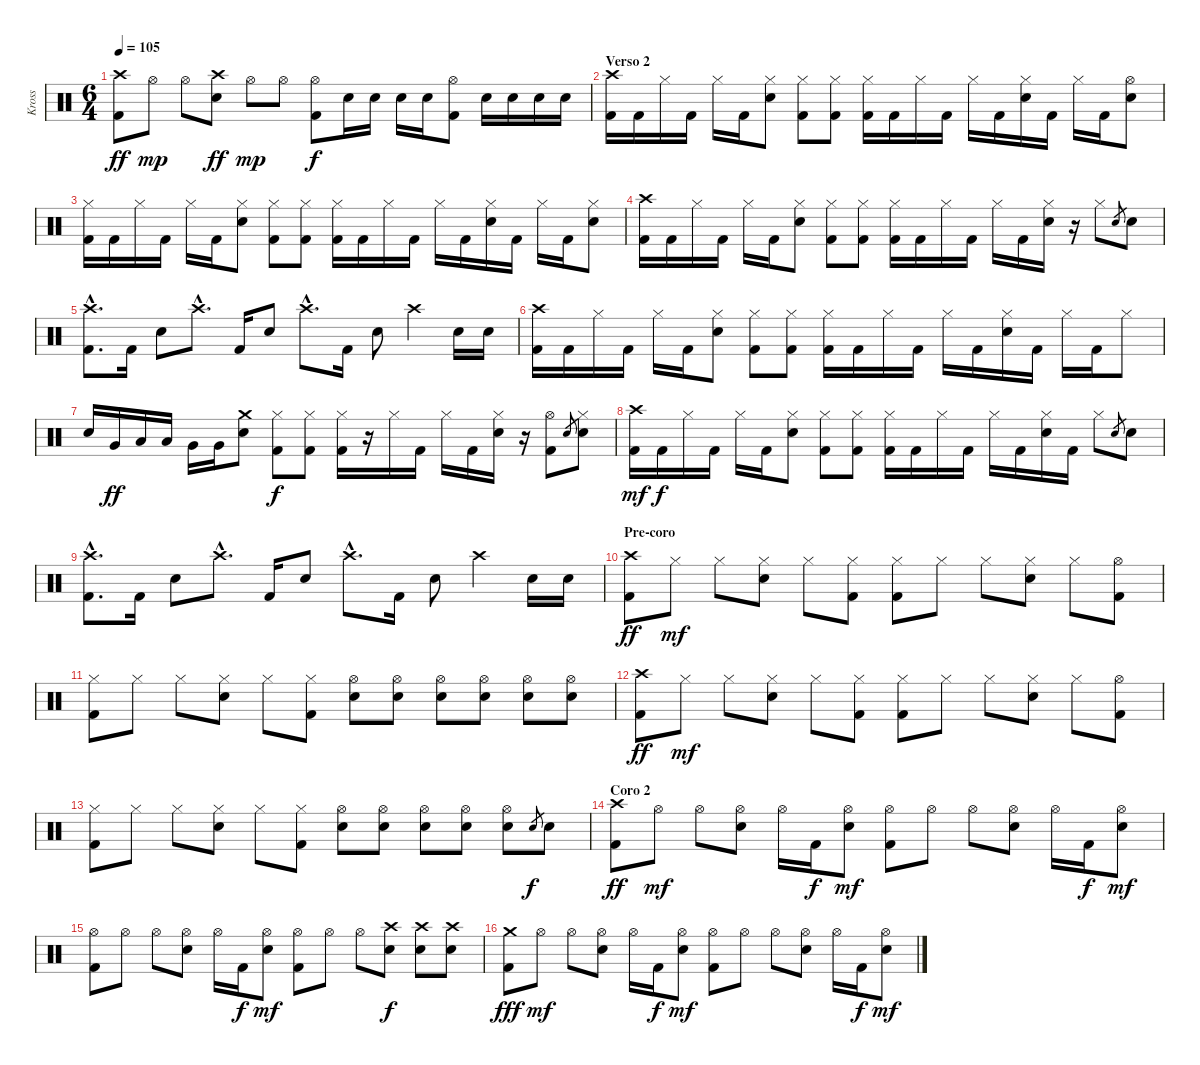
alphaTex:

\track ("Kross" "Kross") {instrument percussion}
\staff {score}
\articulation defaults
\ts (6 4)
\tempo 105
\clef neutral
\ks c
("Crash high (hit)" "Kick (hit) 2").8{dy ff} "Hi-Hat (open)".8{dy mp} "Hi-Hat (open)".8 ("Crash high (hit)" "Electric Snare (hit)").8{dy ff} "Hi-Hat (open)".8{dy mp} "Hi-Hat (open)".8 ("Hi-Hat (open)" "Kick (hit) 2").8{dy f} "Electric Snare (hit)".16 "Electric Snare (hit)".16 "Electric Snare (hit)".16 "Electric Snare (hit)".16 ("Hi-Hat (open)" "Kick (hit) 2").8 "Electric Snare (hit)".16 "Electric Snare (hit)".16 "Electric Snare (hit)".16 "Electric Snare (hit)".16 |
\section ("" "Verso 2")
("Crash high (hit)" "Kick (hit) 2").16 "Kick (hit) 2".16 "Hi-Hat (closed)".16 "Kick (hit) 2".16 "Hi-Hat (closed)".16 "Kick (hit) 2".16 ("Hi-Hat (closed)" "Electric Snare (hit)").8 ("Hi-Hat (closed)" "Kick (hit) 2").8 ("Hi-Hat (closed)" "Kick (hit) 2").8 ("Hi-Hat (closed)" "Kick (hit) 2").16 "Kick (hit) 2".16 "Hi-Hat (closed)".16 "Kick (hit) 2".16 "Hi-Hat (closed)".16 "Kick (hit) 2".16 ("Hi-Hat (closed)" "Electric Snare (hit)").16 "Kick (hit) 2".16 "Hi-Hat (closed)".16 "Kick (hit) 2".16 ("Hi-Hat (open)" "Electric Snare (hit)").8 |
("Hi-Hat (closed)" "Kick (hit) 2").16 "Kick (hit) 2".16 "Hi-Hat (closed)".16 "Kick (hit) 2".16 "Hi-Hat (closed)".16 "Kick (hit) 2".16 ("Hi-Hat (closed)" "Electric Snare (hit)").8 ("Hi-Hat (closed)" "Kick (hit) 2").8 ("Hi-Hat (closed)" "Kick (hit) 2").8 ("Hi-Hat (closed)" "Kick (hit) 2").16 "Kick (hit) 2".16 "Hi-Hat (closed)".16 "Kick (hit) 2".16 "Hi-Hat (closed)".16 "Kick (hit) 2".16 ("Hi-Hat (closed)" "Electric Snare (hit)").16 "Kick (hit) 2".16 "Hi-Hat (closed)".16 "Kick (hit) 2".16 ("Hi-Hat (closed)" "Electric Snare (hit)").8 |
("Crash high (hit)" "Kick (hit) 2").16 "Kick (hit) 2".16 "Hi-Hat (closed)".16 "Kick (hit) 2".16 "Hi-Hat (closed)".16 "Kick (hit) 2".16 ("Hi-Hat (closed)" "Electric Snare (hit)").8 ("Hi-Hat (closed)" "Kick (hit) 2").8 ("Hi-Hat (closed)" "Kick (hit) 2").8 ("Hi-Hat (closed)" "Kick (hit) 2").16 "Kick (hit) 2".16 "Hi-Hat (closed)".16 "Kick (hit) 2".16 "Hi-Hat (closed)".16 "Kick (hit) 2".16 ("Hi-Hat (closed)" "Electric Snare (hit)").16 r.16 "Hi-Hat (closed)".8 "Electric Snare (hit)".8{gr} "Electric Snare (hit)".8 |
("Crash high (hit)"{hac} "Kick (hit) 2"{hac}).8{d} "Kick (hit) 2".16 "Electric Snare (hit)".8 "Crash high (hit)"{hac}.8{d} "Kick (hit) 2".16 "Electric Snare (hit)".8 "Crash high (hit)"{hac}.8{d} "Kick (hit) 2".16 "Electric Snare (hit)".8 "Crash high (hit)".4 "Electric Snare (hit)".16 "Electric Snare (hit)".16 |
("Crash high (hit)" "Kick (hit) 2").16 "Kick (hit) 2".16 "Hi-Hat (closed)".16 "Kick (hit) 2".16 "Hi-Hat (closed)".16 "Kick (hit) 2".16 ("Hi-Hat (closed)" "Electric Snare (hit)").8 ("Hi-Hat (closed)" "Kick (hit) 2").8 ("Hi-Hat (closed)" "Kick (hit) 2").8 ("Hi-Hat (closed)" "Kick (hit) 2").16 "Kick (hit) 2".16 "Hi-Hat (closed)".16 "Kick (hit) 2".16 "Hi-Hat (closed)".16 "Kick (hit) 2".16 ("Hi-Hat (closed)" "Electric Snare (hit)").16 "Kick (hit) 2".16 "Hi-Hat (closed)".16 "Kick (hit) 2".16 "Hi-Hat (closed)".8 |
"Electric Snare (hit)".16 "Very Low Tom (hit)".16{dy ff} "Low Tom (hit)".16 "Low Tom (hit)".16 "Very Low Tom (hit)".16 "Very Low Tom (hit)".16 ("Crash medium (hit)" "Electric Snare (hit)").8 ("Hi-Hat (closed)" "Kick (hit) 2").8{dy f} ("Hi-Hat (closed)" "Kick (hit) 2").8 ("Hi-Hat (closed)" "Kick (hit) 2").16 r.16 "Hi-Hat (closed)".16 "Kick (hit) 2".16 "Hi-Hat (closed)".16 "Kick (hit) 2".16 ("Hi-Hat (closed)" "Electric Snare (hit)").16 r.16 ("Hi-Hat (open)" "Kick (hit) 2").8 "Electric Snare (hit)".8{gr} ("Hi-Hat (closed)" "Electric Snare (hit)").8 |
("Crash high (hit)" "Kick (hit) 2").16{dy mf} "Kick (hit) 2".16{dy f} "Hi-Hat (closed)".16 "Kick (hit) 2".16 "Hi-Hat (closed)".16 "Kick (hit) 2".16 ("Hi-Hat (closed)" "Electric Snare (hit)").8 ("Hi-Hat (closed)" "Kick (hit) 2").8 ("Hi-Hat (closed)" "Kick (hit) 2").8 ("Hi-Hat (closed)" "Kick (hit) 2").16 "Kick (hit) 2".16 "Hi-Hat (closed)".16 "Kick (hit) 2".16 "Hi-Hat (closed)".16 "Kick (hit) 2".16 ("Hi-Hat (closed)" "Electric Snare (hit)").16 "Kick (hit) 2".16 "Hi-Hat (closed)".8 "Electric Snare (hit)".8{gr} "Electric Snare (hit)".8 |
("Crash high (hit)"{hac} "Kick (hit) 2"{hac}).8{d} "Kick (hit) 2".16 "Electric Snare (hit)".8 "Crash high (hit)"{hac}.8{d} "Kick (hit) 2".16 "Electric Snare (hit)".8 "Crash high (hit)"{hac}.8{d} "Kick (hit) 2".16 "Electric Snare (hit)".8 "Crash high (hit)".4 "Electric Snare (hit)".16 "Electric Snare (hit)".16 |
\section ("" "Pre-coro")
("Crash high (hit)" "Kick (hit) 2").8{dy ff} "Hi-Hat (closed)".8{dy mf} "Hi-Hat (closed)".8 ("Hi-Hat (closed)" "Electric Snare (hit)").8 "Hi-Hat (closed)".8 ("Hi-Hat (closed)" "Kick (hit) 2").8 ("Hi-Hat (closed)" "Kick (hit) 2").8 "Hi-Hat (closed)".8 "Hi-Hat (closed)".8 ("Hi-Hat (closed)" "Electric Snare (hit)").8 "Hi-Hat (closed)".8 ("Hi-Hat (open)" "Kick (hit) 2").8 |
("Hi-Hat (closed)" "Kick (hit) 2").8 "Hi-Hat (closed)".8 "Hi-Hat (closed)".8 ("Hi-Hat (closed)" "Electric Snare (hit)").8 "Hi-Hat (closed)".8 ("Hi-Hat (closed)" "Kick (hit) 2").8 ("Hi-Hat (open)" "Electric Snare (hit)").8 ("Hi-Hat (open)" "Electric Snare (hit)").8 ("Hi-Hat (open)" "Electric Snare (hit)").8 ("Hi-Hat (open)" "Electric Snare (hit)").8 ("Hi-Hat (open)" "Electric Snare (hit)").8 ("Hi-Hat (open)" "Electric Snare (hit)").8 |
("Crash high (hit)" "Kick (hit) 2").8{dy ff} "Hi-Hat (closed)".8{dy mf} "Hi-Hat (closed)".8 ("Hi-Hat (closed)" "Electric Snare (hit)").8 "Hi-Hat (closed)".8 ("Hi-Hat (closed)" "Kick (hit) 2").8 ("Hi-Hat (closed)" "Kick (hit) 2").8 "Hi-Hat (closed)".8 "Hi-Hat (closed)".8 ("Hi-Hat (closed)" "Electric Snare (hit)").8 "Hi-Hat (closed)".8 ("Hi-Hat (open)" "Kick (hit) 2").8 |
("Hi-Hat (closed)" "Kick (hit) 2").8 "Hi-Hat (closed)".8 "Hi-Hat (closed)".8 ("Hi-Hat (closed)" "Electric Snare (hit)").8 "Hi-Hat (closed)".8 ("Hi-Hat (closed)" "Kick (hit) 2").8 ("Hi-Hat (open)" "Electric Snare (hit)").8 ("Hi-Hat (open)" "Electric Snare (hit)").8 ("Hi-Hat (open)" "Electric Snare (hit)").8 ("Hi-Hat (open)" "Electric Snare (hit)").8 ("Hi-Hat (open)" "Electric Snare (hit)").8 "Electric Snare (hit)".8{gr dy f} "Electric Snare (hit)".8 |
\section ("" "Coro 2")
("Crash high (hit)" "Kick (hit) 2").8{dy ff} "Hi-Hat (open)".8{dy mf} "Hi-Hat (open)".8 ("Hi-Hat (open)" "Electric Snare (hit)").8 "Hi-Hat (open)".16 "Kick (hit) 2".16{dy f} ("Hi-Hat (open)" "Electric Snare (hit)").8{dy mf} ("Hi-Hat (open)" "Kick (hit) 2").8 "Hi-Hat (open)".8 "Hi-Hat (open)".8 ("Hi-Hat (open)" "Electric Snare (hit)").8 "Hi-Hat (open)".16 "Kick (hit) 2".16{dy f} ("Hi-Hat (open)" "Electric Snare (hit)").8{dy mf} |
("Hi-Hat (open)" "Kick (hit) 2").8 "Hi-Hat (open)".8 "Hi-Hat (open)".8 ("Hi-Hat (open)" "Electric Snare (hit)").8 "Hi-Hat (open)".16 "Kick (hit) 2".16{dy f} ("Hi-Hat (open)" "Electric Snare (hit)").8{dy mf} ("Hi-Hat (open)" "Kick (hit) 2").8 "Hi-Hat (open)".8 "Hi-Hat (open)".8 ("Crash high (hit)" "Electric Snare (hit)").8{dy f} ("Crash high (hit)" "Electric Snare (hit)").8 ("Crash high (hit)" "Electric Snare (hit)").8 |
("Crash medium (hit)" "Kick (hit) 2").8{dy fff} "Hi-Hat (open)".8{dy mf} "Hi-Hat (open)".8 ("Hi-Hat (open)" "Electric Snare (hit)").8 "Hi-Hat (open)".16 "Kick (hit) 2".16{dy f} ("Hi-Hat (open)" "Electric Snare (hit)").8{dy mf} ("Hi-Hat (open)" "Kick (hit) 2").8 "Hi-Hat (open)".8 "Hi-Hat (open)".8 ("Hi-Hat (open)" "Electric Snare (hit)").8 "Hi-Hat (open)".16 "Kick (hit) 2".16{dy f} ("Hi-Hat (open)" "Electric Snare (hit)").8{dy mf}
